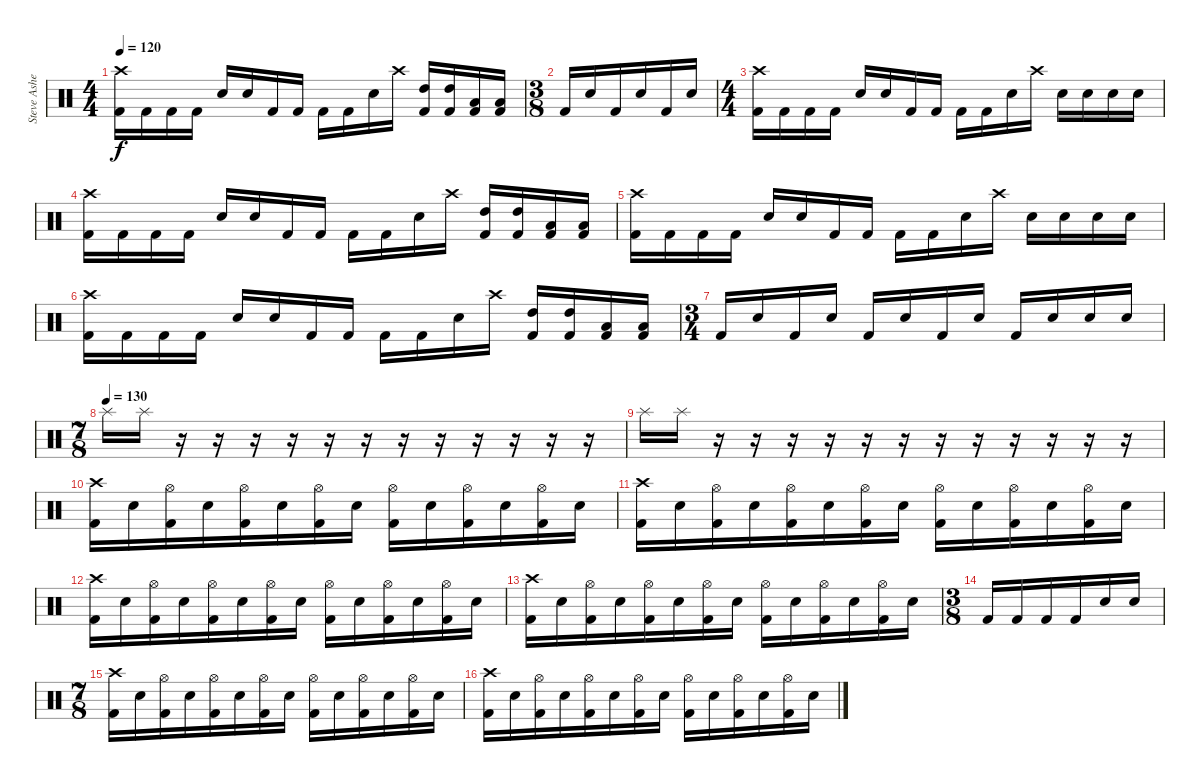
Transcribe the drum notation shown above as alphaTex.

\track ("Steve Asheim" "Steve Ashe") {instrument percussion}
\staff {score}
\articulation defaults
\ts (4 4)
\tempo 120
\clef neutral
\ks c
("Crash high (hit)" "Kick (hit) 2").16{dy f} "Kick (hit) 2".16 "Kick (hit) 2".16 "Kick (hit) 2".16 "Electric Snare (hit)".16 "Electric Snare (hit)".16 "Kick (hit) 2".16 "Kick (hit) 2".16 "Kick (hit) 2".16 "Kick (hit) 2".16 "Electric Snare (hit)".16 "Crash high (hit)".16 ("High Tom (hit)" "Kick (hit) 2").16 ("High Tom (hit)" "Kick (hit) 2").16 ("Low Tom (hit)" "Kick (hit) 2").16 ("Low Tom (hit)" "Kick (hit) 2").16 |
\ts (3 8)
"Kick (hit) 2".16 "Electric Snare (hit)".16 "Kick (hit) 2".16 "Electric Snare (hit)".16 "Kick (hit) 2".16 "Electric Snare (hit)".16 |
\ts (4 4)
("Crash high (hit)" "Kick (hit) 2").16 "Kick (hit) 2".16 "Kick (hit) 2".16 "Kick (hit) 2".16 "Electric Snare (hit)".16 "Electric Snare (hit)".16 "Kick (hit) 2".16 "Kick (hit) 2".16 "Kick (hit) 2".16 "Kick (hit) 2".16 "Electric Snare (hit)".16 "Crash high (hit)".16 "Snare (hit) 2".16 "Snare (hit) 2".16 "Snare (hit) 2".16 "Snare (hit) 2".16 |
("Crash high (hit)" "Kick (hit) 2").16 "Kick (hit) 2".16 "Kick (hit) 2".16 "Kick (hit) 2".16 "Electric Snare (hit)".16 "Electric Snare (hit)".16 "Kick (hit) 2".16 "Kick (hit) 2".16 "Kick (hit) 2".16 "Kick (hit) 2".16 "Electric Snare (hit)".16 "Crash high (hit)".16 ("High Tom (hit)" "Kick (hit) 2").16 ("High Tom (hit)" "Kick (hit) 2").16 ("Low Tom (hit)" "Kick (hit) 2").16 ("Low Tom (hit)" "Kick (hit) 2").16 |
("Crash high (hit)" "Kick (hit) 2").16 "Kick (hit) 2".16 "Kick (hit) 2".16 "Kick (hit) 2".16 "Electric Snare (hit)".16 "Electric Snare (hit)".16 "Kick (hit) 2".16 "Kick (hit) 2".16 "Kick (hit) 2".16 "Kick (hit) 2".16 "Electric Snare (hit)".16 "Crash high (hit)".16 "Snare (hit) 2".16 "Snare (hit) 2".16 "Snare (hit) 2".16 "Snare (hit) 2".16 |
("Crash high (hit)" "Kick (hit) 2").16 "Kick (hit) 2".16 "Kick (hit) 2".16 "Kick (hit) 2".16 "Electric Snare (hit)".16 "Electric Snare (hit)".16 "Kick (hit) 2".16 "Kick (hit) 2".16 "Kick (hit) 2".16 "Kick (hit) 2".16 "Electric Snare (hit)".16 "Crash high (hit)".16 ("High Tom (hit)" "Kick (hit) 2").16 ("High Tom (hit)" "Kick (hit) 2").16 ("Low Tom (hit)" "Kick (hit) 2").16 ("Low Tom (hit)" "Kick (hit) 2").16 |
\ts (3 4)
"Kick (hit) 2".16 "Electric Snare (hit)".16 "Kick (hit) 2".16 "Electric Snare (hit)".16 "Kick (hit) 2".16 "Electric Snare (hit)".16 "Kick (hit) 2".16 "Electric Snare (hit)".16 "Kick (hit) 2".16 "Electric Snare (hit)".16 "Snare (hit) 2".16 "Snare (hit) 2".16 |
\ts (7 8)
\tempo (130)
"Splash (hit)".16 "Splash (hit)".16 r.16 r.16 r.16 r.16 r.16 r.16 r.16 r.16 r.16 r.16 r.16 r.16 |
"Splash (hit)".16 "Splash (hit)".16 r.16 r.16 r.16 r.16 r.16 r.16 r.16 r.16 r.16 r.16 r.16 r.16 |
("Crash high (hit)" "Kick (hit) 2").16 "Electric Snare (hit)".16 ("Hi-Hat (open)" "Kick (hit) 2").16 "Electric Snare (hit)".16 ("Hi-Hat (open)" "Kick (hit) 2").16 "Electric Snare (hit)".16 ("Hi-Hat (open)" "Kick (hit) 2").16 "Electric Snare (hit)".16 ("Hi-Hat (open)" "Kick (hit) 2").16 "Electric Snare (hit)".16 ("Hi-Hat (open)" "Kick (hit) 2").16 "Electric Snare (hit)".16 ("Hi-Hat (open)" "Kick (hit) 2").16 "Electric Snare (hit)".16 |
("Crash high (hit)" "Kick (hit) 2").16 "Electric Snare (hit)".16 ("Hi-Hat (open)" "Kick (hit) 2").16 "Electric Snare (hit)".16 ("Hi-Hat (open)" "Kick (hit) 2").16 "Electric Snare (hit)".16 ("Hi-Hat (open)" "Kick (hit) 2").16 "Electric Snare (hit)".16 ("Hi-Hat (open)" "Kick (hit) 2").16 "Electric Snare (hit)".16 ("Hi-Hat (open)" "Kick (hit) 2").16 "Electric Snare (hit)".16 ("Hi-Hat (open)" "Kick (hit) 2").16 "Electric Snare (hit)".16 |
("Crash high (hit)" "Kick (hit) 2").16 "Electric Snare (hit)".16 ("Hi-Hat (open)" "Kick (hit) 2").16 "Electric Snare (hit)".16 ("Hi-Hat (open)" "Kick (hit) 2").16 "Electric Snare (hit)".16 ("Hi-Hat (open)" "Kick (hit) 2").16 "Electric Snare (hit)".16 ("Hi-Hat (open)" "Kick (hit) 2").16 "Electric Snare (hit)".16 ("Hi-Hat (open)" "Kick (hit) 2").16 "Electric Snare (hit)".16 ("Hi-Hat (open)" "Kick (hit) 2").16 "Electric Snare (hit)".16 |
("Crash high (hit)" "Kick (hit) 2").16 "Electric Snare (hit)".16 ("Hi-Hat (open)" "Kick (hit) 2").16 "Electric Snare (hit)".16 ("Hi-Hat (open)" "Kick (hit) 2").16 "Electric Snare (hit)".16 ("Hi-Hat (open)" "Kick (hit) 2").16 "Electric Snare (hit)".16 ("Hi-Hat (open)" "Kick (hit) 2").16 "Electric Snare (hit)".16 ("Hi-Hat (open)" "Kick (hit) 2").16 "Electric Snare (hit)".16 ("Hi-Hat (open)" "Kick (hit) 2").16 "Electric Snare (hit)".16 |
\ts (3 8)
"Kick (hit) 2".16 "Kick (hit) 2".16 "Kick (hit) 2".16 "Kick (hit) 2".16 "Snare (hit) 2".16 "Snare (hit) 2".16 |
\ts (7 8)
("Crash high (hit)" "Kick (hit) 2").16 "Electric Snare (hit)".16 ("Hi-Hat (open)" "Kick (hit) 2").16 "Electric Snare (hit)".16 ("Hi-Hat (open)" "Kick (hit) 2").16 "Electric Snare (hit)".16 ("Hi-Hat (open)" "Kick (hit) 2").16 "Electric Snare (hit)".16 ("Hi-Hat (open)" "Kick (hit) 2").16 "Electric Snare (hit)".16 ("Hi-Hat (open)" "Kick (hit) 2").16 "Electric Snare (hit)".16 ("Hi-Hat (open)" "Kick (hit) 2").16 "Electric Snare (hit)".16 |
("Crash high (hit)" "Kick (hit) 2").16 "Electric Snare (hit)".16 ("Hi-Hat (open)" "Kick (hit) 2").16 "Electric Snare (hit)".16 ("Hi-Hat (open)" "Kick (hit) 2").16 "Electric Snare (hit)".16 ("Hi-Hat (open)" "Kick (hit) 2").16 "Electric Snare (hit)".16 ("Hi-Hat (open)" "Kick (hit) 2").16 "Electric Snare (hit)".16 ("Hi-Hat (open)" "Kick (hit) 2").16 "Electric Snare (hit)".16 ("Hi-Hat (open)" "Kick (hit) 2").16 "Electric Snare (hit)".16
